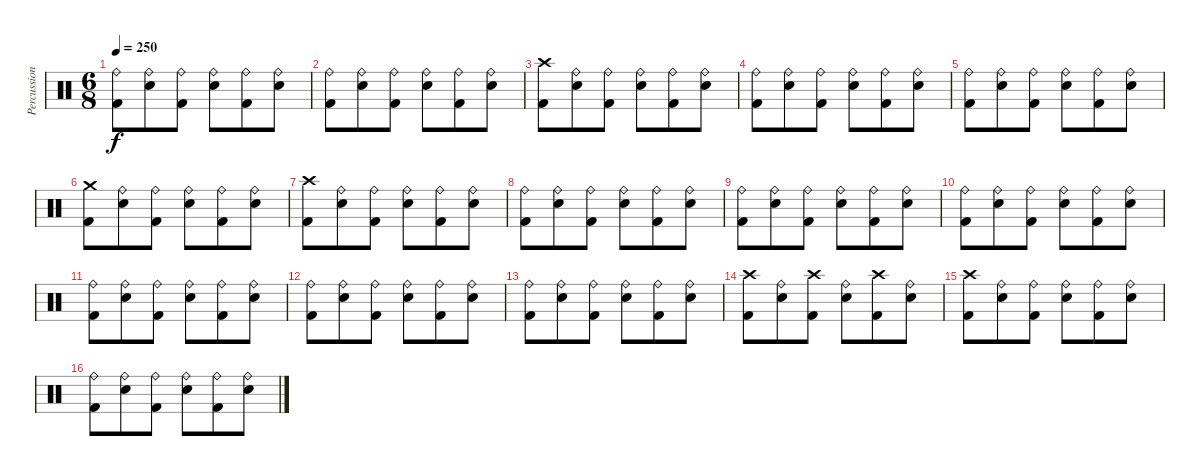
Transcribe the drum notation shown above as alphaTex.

\track ("Percussion" "Percussion") {instrument percussion}
\staff {score}
\articulation defaults
\ts (6 8)
\tempo 250
\clef neutral
\ks c
("Ride (bell)" "Kick (hit) 2").8{dy f} ("Ride (bell)" "Electric Snare (hit)").8 ("Ride (bell)" "Kick (hit) 2").8 ("Ride (bell)" "Electric Snare (hit)").8 ("Ride (bell)" "Kick (hit) 2").8 ("Ride (bell)" "Electric Snare (hit)").8 |
("Ride (bell)" "Kick (hit) 2").8 ("Ride (bell)" "Electric Snare (hit)").8 ("Ride (bell)" "Kick (hit) 2").8 ("Ride (bell)" "Electric Snare (hit)").8 ("Ride (bell)" "Kick (hit) 2").8 ("Ride (bell)" "Electric Snare (hit)").8 |
("Crash high (hit)" "Kick (hit) 2").8 ("Ride (bell)" "Electric Snare (hit)").8 ("Ride (bell)" "Kick (hit) 2").8 ("Ride (bell)" "Electric Snare (hit)").8 ("Ride (bell)" "Kick (hit) 2").8 ("Ride (bell)" "Electric Snare (hit)").8 |
("Ride (bell)" "Kick (hit) 2").8 ("Ride (bell)" "Electric Snare (hit)").8 ("Ride (bell)" "Kick (hit) 2").8 ("Ride (bell)" "Electric Snare (hit)").8 ("Ride (bell)" "Kick (hit) 2").8 ("Ride (bell)" "Electric Snare (hit)").8 |
("Ride (bell)" "Kick (hit) 2").8 ("Ride (bell)" "Electric Snare (hit)").8 ("Ride (bell)" "Kick (hit) 2").8 ("Ride (bell)" "Electric Snare (hit)").8 ("Ride (bell)" "Kick (hit) 2").8 ("Ride (bell)" "Electric Snare (hit)").8 |
("Crash medium (hit)" "Kick (hit) 2").8 ("Ride (bell)" "Electric Snare (hit)").8 ("Ride (bell)" "Kick (hit) 2").8 ("Ride (bell)" "Electric Snare (hit)").8 ("Ride (bell)" "Kick (hit) 2").8 ("Ride (bell)" "Electric Snare (hit)").8 |
("Crash high (hit)" "Kick (hit) 2").8 ("Ride (bell)" "Electric Snare (hit)").8 ("Ride (bell)" "Kick (hit) 2").8 ("Ride (bell)" "Electric Snare (hit)").8 ("Ride (bell)" "Kick (hit) 2").8 ("Ride (bell)" "Electric Snare (hit)").8 |
("Ride (bell)" "Kick (hit) 2").8 ("Ride (bell)" "Electric Snare (hit)").8 ("Ride (bell)" "Kick (hit) 2").8 ("Ride (bell)" "Electric Snare (hit)").8 ("Ride (bell)" "Kick (hit) 2").8 ("Ride (bell)" "Electric Snare (hit)").8 |
("Ride (bell)" "Kick (hit) 2").8 ("Ride (bell)" "Electric Snare (hit)").8 ("Ride (bell)" "Kick (hit) 2").8 ("Ride (bell)" "Electric Snare (hit)").8 ("Ride (bell)" "Kick (hit) 2").8 ("Ride (bell)" "Electric Snare (hit)").8 |
("Ride (bell)" "Kick (hit) 2").8 ("Ride (bell)" "Electric Snare (hit)").8 ("Ride (bell)" "Kick (hit) 2").8 ("Ride (bell)" "Electric Snare (hit)").8 ("Ride (bell)" "Kick (hit) 2").8 ("Ride (bell)" "Electric Snare (hit)").8 |
("Ride (bell)" "Kick (hit) 2").8 ("Ride (bell)" "Electric Snare (hit)").8 ("Ride (bell)" "Kick (hit) 2").8 ("Ride (bell)" "Electric Snare (hit)").8 ("Ride (bell)" "Kick (hit) 2").8 ("Ride (bell)" "Electric Snare (hit)").8 |
("Ride (bell)" "Kick (hit) 2").8 ("Ride (bell)" "Electric Snare (hit)").8 ("Ride (bell)" "Kick (hit) 2").8 ("Ride (bell)" "Electric Snare (hit)").8 ("Ride (bell)" "Kick (hit) 2").8 ("Ride (bell)" "Electric Snare (hit)").8 |
("Ride (bell)" "Kick (hit) 2").8 ("Ride (bell)" "Electric Snare (hit)").8 ("Ride (bell)" "Kick (hit) 2").8 ("Ride (bell)" "Electric Snare (hit)").8 ("Ride (bell)" "Kick (hit) 2").8 ("Ride (bell)" "Electric Snare (hit)").8 |
("Crash high (hit)" "Kick (hit) 2").8 ("Ride (bell)" "Electric Snare (hit)").8 ("Crash high (hit)" "Kick (hit) 2").8 ("Ride (bell)" "Electric Snare (hit)").8 ("Crash high (hit)" "Kick (hit) 2").8 ("Ride (bell)" "Electric Snare (hit)").8 |
("Crash high (hit)" "Kick (hit) 2").8 ("Ride (bell)" "Electric Snare (hit)").8 ("Ride (bell)" "Kick (hit) 2").8 ("Ride (bell)" "Electric Snare (hit)").8 ("Ride (bell)" "Kick (hit) 2").8 ("Ride (bell)" "Electric Snare (hit)").8 |
("Ride (bell)" "Kick (hit) 2").8 ("Ride (bell)" "Electric Snare (hit)").8 ("Ride (bell)" "Kick (hit) 2").8 ("Ride (bell)" "Electric Snare (hit)").8 ("Ride (bell)" "Kick (hit) 2").8 ("Ride (bell)" "Electric Snare (hit)").8
